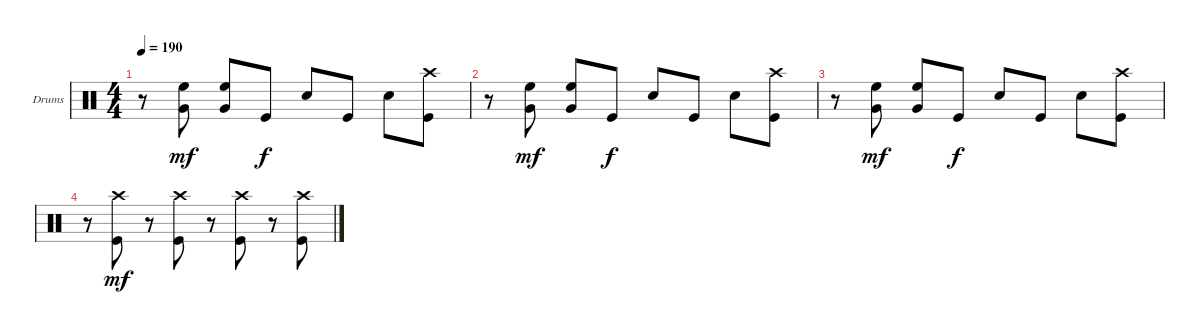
\bracketExtendMode groupsimilarinstruments
\firstSystemTrackNameOrientation horizontal
\otherSystemsTrackNameOrientation horizontal
\track ("Drumkit" "Drums") {instrument percussion}
\staff {score}
\articulation defaults
\ts (4 4)
\tempo 190
\clef neutral
\scale
0.333333
\ks c
r.8{dy f} ("High Floor Tom (hit)" "Very Low Tom (hit)").8{dy mf} ("High Floor Tom (hit)" "Very Low Tom (hit)").8 "Kick (hit)".8{dy f} "Snare (hit) 2".8 "Kick (hit)".8 "Snare (hit) 2".8 ("Kick (hit)" "Crash high (hit)").8 |
\scale
0.333333 r.8 ("High Floor Tom (hit)" "Very Low Tom (hit)").8{dy mf} ("High Floor Tom (hit)" "Very Low Tom (hit)").8 "Kick (hit)".8{dy f} "Snare (hit) 2".8 "Kick (hit)".8 "Snare (hit) 2".8 ("Kick (hit)" "Crash high (hit)").8 |
\scale
0.333333 r.8 ("High Floor Tom (hit)" "Very Low Tom (hit)").8{dy mf} ("High Floor Tom (hit)" "Very Low Tom (hit)").8 "Kick (hit)".8{dy f} "Snare (hit) 2".8 "Kick (hit)".8 "Snare (hit) 2".8 ("Kick (hit)" "Crash high (hit)").8 |
\scale
0.333333 r.8 ("Kick (hit)" "Crash high (hit)").8{dy mf} r.8 ("Kick (hit)" "Crash high (hit)").8 r.8 ("Kick (hit)" "Crash high (hit)").8 r.8 ("Kick (hit)" "Crash high (hit)").8 |
\scale
0.333333
